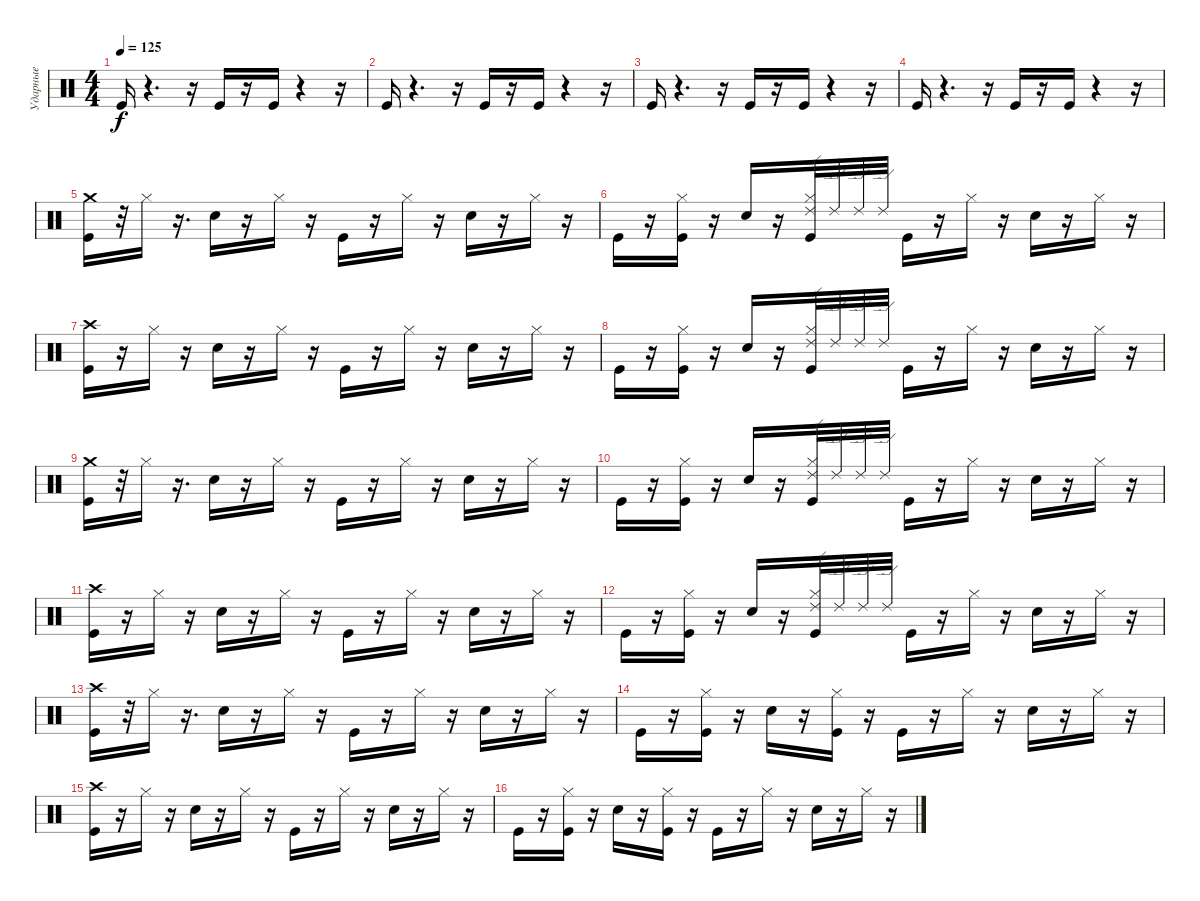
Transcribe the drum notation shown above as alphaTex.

\track ("Ударные" "Ударные") {instrument percussion}
\staff {score}
\articulation defaults
\ts (4 4)
\tempo 125
\clef neutral
\ks c "Kick (hit)".16{dy f}
r.4{d} r.16 "Kick (hit)".16 r.16 "Kick (hit)".16 r.4 r.16 |
"Kick (hit)".16 r.4{d} r.16 "Kick (hit)".16 r.16 "Kick (hit)".16 r.4 r.16 |
"Kick (hit)".16 r.4{d} r.16 "Kick (hit)".16 r.16 "Kick (hit)".16 r.4 r.16 |
"Kick (hit)".16 r.4{d} r.16 "Kick (hit)".16 r.16 "Kick (hit)".16 r.4 r.16 |
("Crash medium (hit)" "Kick (hit)").16 r.32 "Hi-Hat (closed)".16 r.16{d} "Electric Snare (hit)".16 r.16 "Hi-Hat (closed)".16 r.16 "Kick (hit)".16 r.16 "Hi-Hat (closed)".16 r.16 "Electric Snare (hit)".16 r.16 "Hi-Hat (closed)".16 r.16 |
"Kick (hit)".16 r.16 ("Hi-Hat (closed)" "Kick (hit)").16 r.16 "Electric Snare (hit)".16 r.16 ("Hi-Hat (closed)" "Kick (hit)" "Ride (edge) 2").32 "Ride (edge) 2".32 "Ride (edge) 2".32 "Ride (edge) 2".32 "Kick (hit)".16 r.16 "Hi-Hat (closed)".16 r.16 "Electric Snare (hit)".16 r.16 "Hi-Hat (closed)".16 r.16 |
("Kick (hit)" "Crash high (hit)").16 r.16 "Hi-Hat (closed)".16 r.16 "Electric Snare (hit)".16 r.16 "Hi-Hat (closed)".16 r.16 "Kick (hit)".16 r.16 "Hi-Hat (closed)".16 r.16 "Electric Snare (hit)".16 r.16 "Hi-Hat (closed)".16 r.16 |
"Kick (hit)".16 r.16 ("Hi-Hat (closed)" "Kick (hit)").16 r.16 "Electric Snare (hit)".16 r.16 ("Hi-Hat (closed)" "Kick (hit)" "Ride (edge) 2").32 "Ride (edge) 2".32 "Ride (edge) 2".32 "Ride (edge) 2".32 "Kick (hit)".16 r.16 "Hi-Hat (closed)".16 r.16 "Electric Snare (hit)".16 r.16 "Hi-Hat (closed)".16 r.16 |
("Crash medium (hit)" "Kick (hit)").16 r.32 "Hi-Hat (closed)".16 r.16{d} "Electric Snare (hit)".16 r.16 "Hi-Hat (closed)".16 r.16 "Kick (hit)".16 r.16 "Hi-Hat (closed)".16 r.16 "Electric Snare (hit)".16 r.16 "Hi-Hat (closed)".16 r.16 |
"Kick (hit)".16 r.16 ("Hi-Hat (closed)" "Kick (hit)").16 r.16 "Electric Snare (hit)".16 r.16 ("Hi-Hat (closed)" "Kick (hit)" "Ride (edge) 2").32 "Ride (edge) 2".32 "Ride (edge) 2".32 "Ride (edge) 2".32 "Kick (hit)".16 r.16 "Hi-Hat (closed)".16 r.16 "Electric Snare (hit)".16 r.16 "Hi-Hat (closed)".16 r.16 |
("Kick (hit)" "Crash high (hit)").16 r.16 "Hi-Hat (closed)".16 r.16 "Electric Snare (hit)".16 r.16 "Hi-Hat (closed)".16 r.16 "Kick (hit)".16 r.16 "Hi-Hat (closed)".16 r.16 "Electric Snare (hit)".16 r.16 "Hi-Hat (closed)".16 r.16 |
"Kick (hit)".16 r.16 ("Hi-Hat (closed)" "Kick (hit)").16 r.16 "Electric Snare (hit)".16 r.16 ("Hi-Hat (closed)" "Kick (hit)" "Ride (edge) 2").32 "Ride (edge) 2".32 "Ride (edge) 2".32 "Ride (edge) 2".32 "Kick (hit)".16 r.16 "Hi-Hat (closed)".16 r.16 "Electric Snare (hit)".16 r.16 "Hi-Hat (closed)".16 r.16 |
("Crash high (hit)" "Kick (hit)").16 r.32 "Hi-Hat (closed)".16 r.16{d} "Electric Snare (hit)".16 r.16 "Hi-Hat (closed)".16 r.16 "Kick (hit)".16 r.16 "Hi-Hat (closed)".16 r.16 "Electric Snare (hit)".16 r.16 "Hi-Hat (closed)".16 r.16 |
"Kick (hit)".16 r.16 ("Hi-Hat (closed)" "Kick (hit)").16 r.16 "Electric Snare (hit)".16 r.16 ("Hi-Hat (closed)" "Kick (hit)").16 r.16 "Kick (hit)".16 r.16 "Hi-Hat (closed)".16 r.16 "Electric Snare (hit)".16 r.16 "Hi-Hat (closed)".16 r.16 |
("Crash high (hit)" "Kick (hit)").16 r.16 "Hi-Hat (closed)".16 r.16 "Electric Snare (hit)".16 r.16 "Hi-Hat (closed)".16 r.16 "Kick (hit)".16 r.16 "Hi-Hat (closed)".16 r.16 "Electric Snare (hit)".16 r.16 "Hi-Hat (closed)".16 r.16 |
"Kick (hit)".16 r.16 ("Hi-Hat (closed)" "Kick (hit)").16 r.16 "Electric Snare (hit)".16 r.16 ("Hi-Hat (closed)" "Kick (hit)").16 r.16 "Kick (hit)".16 r.16 "Hi-Hat (closed)".16 r.16 "Electric Snare (hit)".16 r.16 "Hi-Hat (closed)".16 r.16
